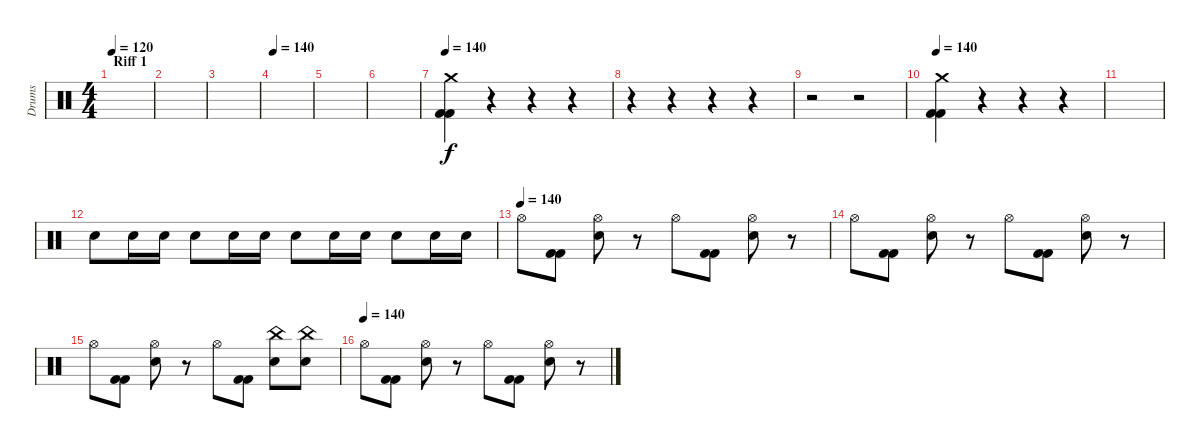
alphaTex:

\track ("Drums" "Drums") {instrument percussion}
\staff {score}
\articulation defaults
\ts (4 4)
\section ("" "Riff 1")
\tempo 120
\tempo 140
\tempo 120
\clef neutral
\ks c
|
|
|
\tempo 140
|
|
|
\tempo 140
("Crash medium (hit)" "Kick (hit) 2" "Kick (hit) 2").4 r.4 r.4 r.4 |
r.4 r.4 r.4 r.4 |
r.2 r.2 |
\tempo 140
("Crash medium (hit)" "Kick (hit) 2" "Kick (hit) 2").4 r.4 r.4 r.4 |
|
"Electric Snare (hit)".8 "Electric Snare (hit)".16 "Electric Snare (hit)".16 "Electric Snare (hit)".8 "Electric Snare (hit)".16 "Electric Snare (hit)".16 "Electric Snare (hit)".8 "Electric Snare (hit)".16 "Electric Snare (hit)".16 "Electric Snare (hit)".8 "Electric Snare (hit)".16 "Electric Snare (hit)".16 |
\tempo (140)
"Hi-Hat (open)".8 ("Kick (hit) 2" "Kick (hit) 2").8 ("Electric Snare (hit)" "Hi-Hat (open)").8 r.8 "Hi-Hat (open)".8 ("Kick (hit) 2" "Kick (hit) 2").8 ("Electric Snare (hit)" "Hi-Hat (open)").8 r.8 |
"Hi-Hat (open)".8 ("Kick (hit) 2" "Kick (hit) 2").8 ("Electric Snare (hit)" "Hi-Hat (open)").8 r.8 "Hi-Hat (open)".8 ("Kick (hit) 2" "Kick (hit) 2").8 ("Electric Snare (hit)" "Hi-Hat (open)").8 r.8 |
"Hi-Hat (open)".8 ("Kick (hit) 2" "Kick (hit) 2").8 ("Electric Snare (hit)" "Hi-Hat (open)").8 r.8 "Hi-Hat (open)".8 ("Kick (hit) 2" "Kick (hit) 2").8 ("Electric Snare (hit)" "China (hit)").8 ("China (hit)" "Electric Snare (hit)").8 |
\tempo (140)
"Hi-Hat (open)".8 ("Kick (hit) 2" "Kick (hit) 2").8 ("Electric Snare (hit)" "Hi-Hat (open)").8 r.8 "Hi-Hat (open)".8 ("Kick (hit) 2" "Kick (hit) 2").8 ("Electric Snare (hit)" "Hi-Hat (open)").8 r.8
